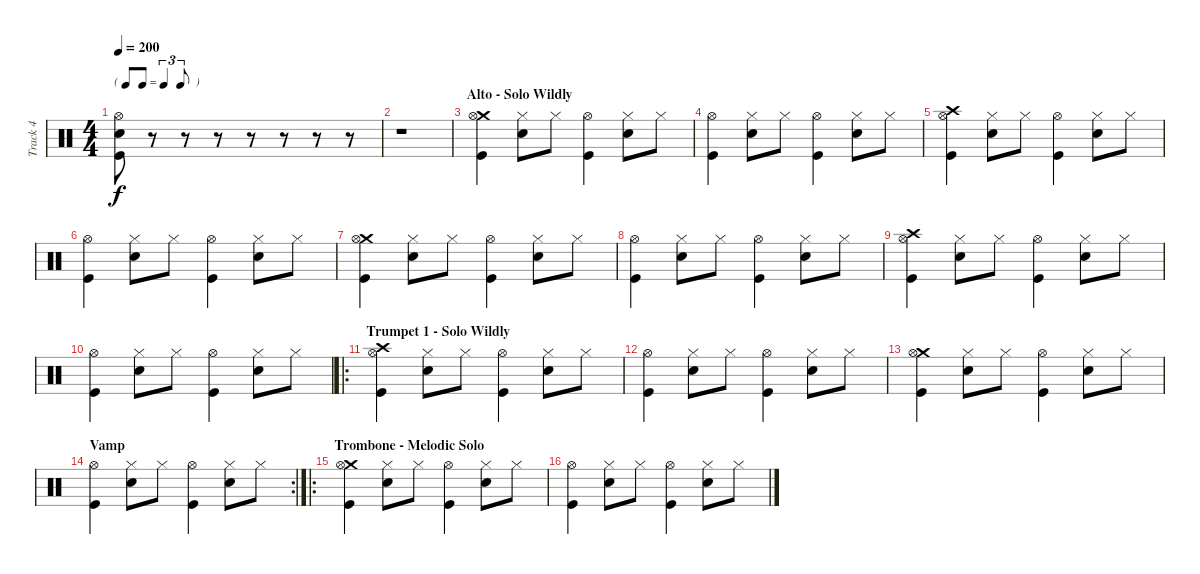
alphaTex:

\track ("Track 4" "Track 4") {instrument percussion}
\staff {score}
\articulation defaults
\ts (4 4)
\tf triplet8th
\tempo 200
\clef neutral
\ks c
("Hi-Hat (open)" "Electric Snare (hit)" "Kick (hit)").8{dy f} r.8 r.8 r.8 r.8 r.8 r.8 r.8 |
r.1 |
\section ("" "Alto - Solo Wildly")
("Crash medium (hit)" "Hi-Hat (open)" "Kick (hit)").4 ("Hi-Hat (closed)" "Electric Snare (hit)").8 "Hi-Hat (closed)".8 ("Hi-Hat (open)" "Kick (hit)").4 ("Hi-Hat (closed)" "Electric Snare (hit)").8 "Hi-Hat (closed)".8 |
("Hi-Hat (open)" "Kick (hit)").4 ("Hi-Hat (closed)" "Electric Snare (hit)").8 "Hi-Hat (closed)".8 ("Hi-Hat (open)" "Kick (hit)").4 ("Hi-Hat (closed)" "Electric Snare (hit)").8 "Hi-Hat (closed)".8 |
("Crash high (hit)" "Hi-Hat (open)" "Kick (hit)").4 ("Hi-Hat (closed)" "Electric Snare (hit)").8 "Hi-Hat (closed)".8 ("Hi-Hat (open)" "Kick (hit)").4 ("Hi-Hat (closed)" "Electric Snare (hit)").8 "Hi-Hat (closed)".8 |
("Hi-Hat (open)" "Kick (hit)").4 ("Hi-Hat (closed)" "Electric Snare (hit)").8 "Hi-Hat (closed)".8 ("Hi-Hat (open)" "Kick (hit)").4 ("Hi-Hat (closed)" "Electric Snare (hit)").8 "Hi-Hat (closed)".8 |
("Crash medium (hit)" "Hi-Hat (open)" "Kick (hit)").4 ("Hi-Hat (closed)" "Electric Snare (hit)").8 "Hi-Hat (closed)".8 ("Hi-Hat (open)" "Kick (hit)").4 ("Hi-Hat (closed)" "Electric Snare (hit)").8 "Hi-Hat (closed)".8 |
("Hi-Hat (open)" "Kick (hit)").4 ("Hi-Hat (closed)" "Electric Snare (hit)").8 "Hi-Hat (closed)".8 ("Hi-Hat (open)" "Kick (hit)").4 ("Hi-Hat (closed)" "Electric Snare (hit)").8 "Hi-Hat (closed)".8 |
("Crash high (hit)" "Hi-Hat (open)" "Kick (hit)").4 ("Hi-Hat (closed)" "Electric Snare (hit)").8 "Hi-Hat (closed)".8 ("Hi-Hat (open)" "Kick (hit)").4 ("Hi-Hat (closed)" "Electric Snare (hit)").8 "Hi-Hat (closed)".8 |
("Hi-Hat (open)" "Kick (hit)").4 ("Hi-Hat (closed)" "Electric Snare (hit)").8 "Hi-Hat (closed)".8 ("Hi-Hat (open)" "Kick (hit)").4 ("Hi-Hat (closed)" "Electric Snare (hit)").8 "Hi-Hat (closed)".8 |
\ro
\section ("" "Trumpet 1 - Solo Wildly")
("Crash high (hit)" "Hi-Hat (open)" "Kick (hit)").4 ("Hi-Hat (closed)" "Electric Snare (hit)").8 "Hi-Hat (closed)".8 ("Hi-Hat (open)" "Kick (hit)").4 ("Hi-Hat (closed)" "Electric Snare (hit)").8 "Hi-Hat (closed)".8 |
("Hi-Hat (open)" "Kick (hit)").4 ("Hi-Hat (closed)" "Electric Snare (hit)").8 "Hi-Hat (closed)".8 ("Hi-Hat (open)" "Kick (hit)").4 ("Hi-Hat (closed)" "Electric Snare (hit)").8 "Hi-Hat (closed)".8 |
("Crash medium (hit)" "Hi-Hat (open)" "Kick (hit)").4 ("Hi-Hat (closed)" "Electric Snare (hit)").8 "Hi-Hat (closed)".8 ("Hi-Hat (open)" "Kick (hit)").4 ("Hi-Hat (closed)" "Electric Snare (hit)").8 "Hi-Hat (closed)".8 |
\rc 2
\section ("" "Vamp")
("Hi-Hat (open)" "Kick (hit)").4 ("Hi-Hat (closed)" "Electric Snare (hit)").8 "Hi-Hat (closed)".8 ("Hi-Hat (open)" "Kick (hit)").4 ("Hi-Hat (closed)" "Electric Snare (hit)").8 "Hi-Hat (closed)".8 |
\ro
\section ("" "Trombone - Melodic Solo")
("Crash medium (hit)" "Hi-Hat (open)" "Kick (hit)").4 ("Hi-Hat (closed)" "Electric Snare (hit)").8 "Hi-Hat (closed)".8 ("Hi-Hat (open)" "Kick (hit)").4 ("Hi-Hat (closed)" "Electric Snare (hit)").8 "Hi-Hat (closed)".8 |
("Hi-Hat (open)" "Kick (hit)").4 ("Hi-Hat (closed)" "Electric Snare (hit)").8 "Hi-Hat (closed)".8 ("Hi-Hat (open)" "Kick (hit)").4 ("Hi-Hat (closed)" "Electric Snare (hit)").8 "Hi-Hat (closed)".8
